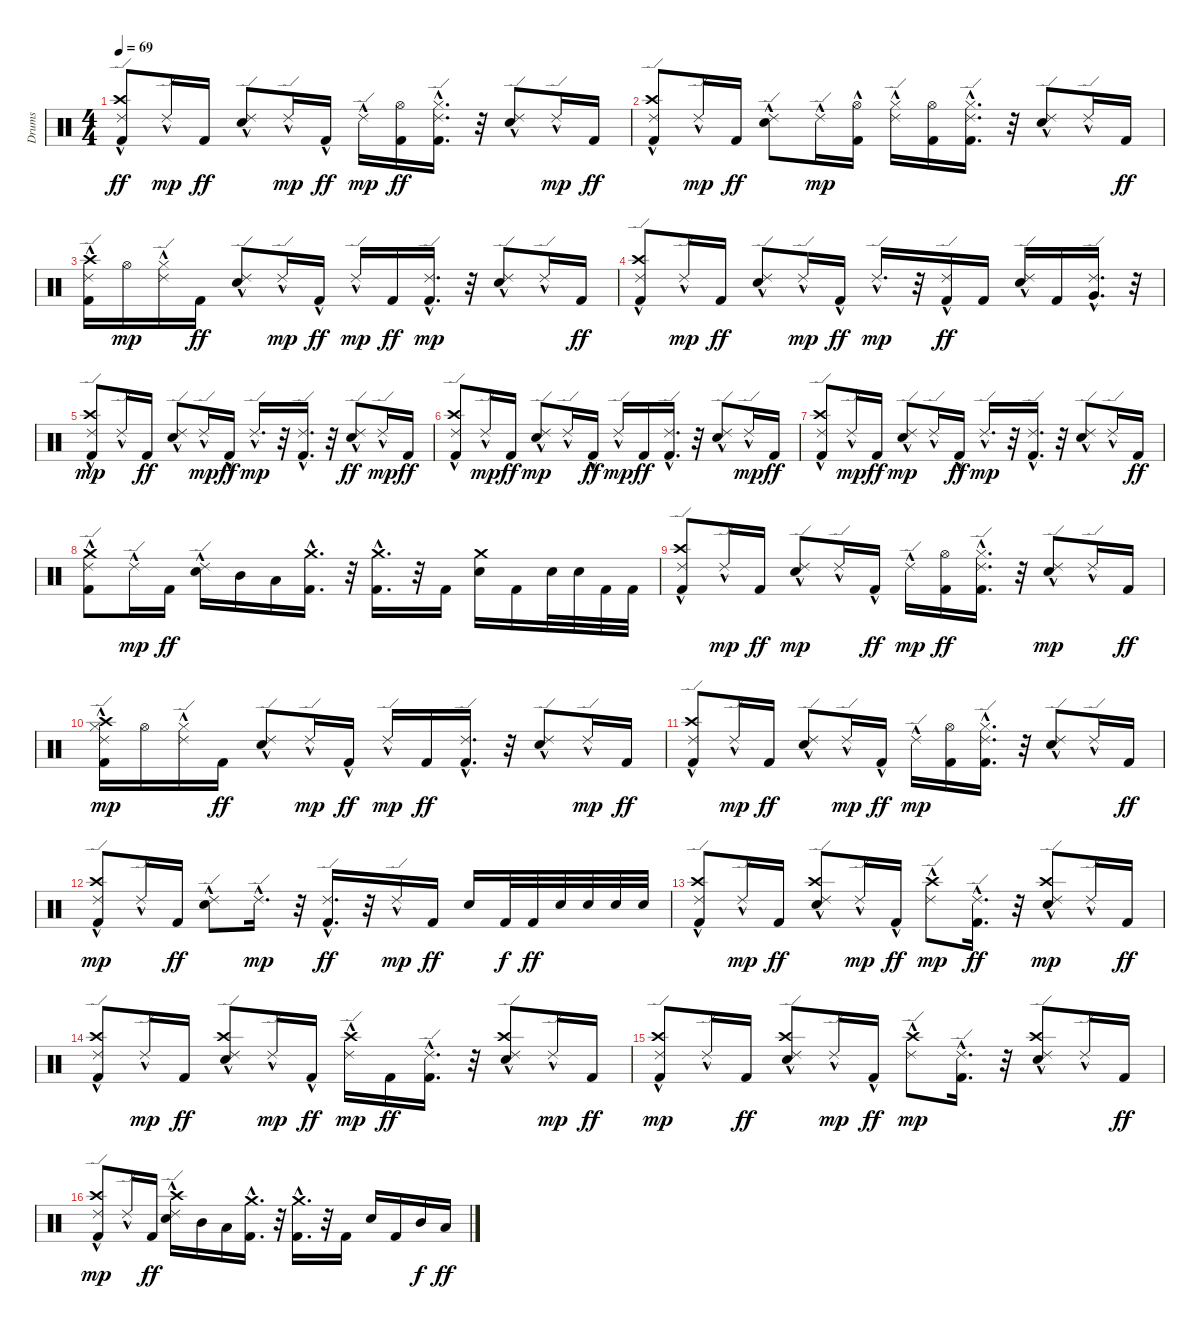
\track ("Drums" "Drums") {instrument percussion}
\staff {score}
\articulation defaults
\ts (4 4)
\tempo 69
\clef neutral
\ks c
("Ride (edge) 2"{hac} "Crash high (hit)"{hac} "Kick (hit) 2").8{dy ff} "Ride (edge) 2"{hac}.16{dy mp} "Kick (hit) 2".16{dy ff} ("Ride (edge) 2"{hac} "Electric Snare (hit)").8 "Ride (edge) 2"{hac}.16{dy mp} "Kick (hit) 2"{hac}.16{dy ff} "Ride (edge) 2"{hac}.16{dy mp} ("Hi-Hat (open)" "Kick (hit) 2").16{dy ff} ("Hi-Hat (closed)" "Ride (edge) 2"{hac} "Kick (hit) 2"{hac}).16{d} r.32 ("Ride (edge) 2"{hac} "Electric Snare (hit)").8 "Ride (edge) 2"{hac}.16{dy mp} "Kick (hit) 2".16{dy ff} |
("Ride (edge) 2"{hac} "Crash high (hit)"{hac} "Kick (hit) 2").8 "Ride (edge) 2"{hac}.16{dy mp} "Kick (hit) 2".16{dy ff} ("Ride (edge) 2"{hac} "Electric Snare (hit)").8 "Ride (edge) 2"{hac}.16{dy mp} ("Kick (hit) 2"{hac} "Hi-Hat (open)").16 ("Ride (edge) 2"{hac} "Hi-Hat (closed)").16 ("Kick (hit) 2" "Hi-Hat (open)").16 ("Hi-Hat (closed)" "Kick (hit) 2"{hac} "Ride (edge) 2"{hac}).16{d} r.32 ("Electric Snare (hit)" "Ride (edge) 2"{hac}).8 "Ride (edge) 2"{hac}.16 "Kick (hit) 2".16{dy ff} |
("Ride (edge) 2"{hac} "Kick (hit) 2" "Crash high (hit)"{hac}).16 "Hi-Hat (open)".16{dy mp} ("Ride (edge) 2"{hac} "Hi-Hat (closed)").16 "Kick (hit) 2".16{dy ff} ("Ride (edge) 2"{hac} "Electric Snare (hit)").8 "Ride (edge) 2"{hac}.16{dy mp} "Kick (hit) 2"{hac}.16{dy ff} "Ride (edge) 2"{hac}.16{dy mp} "Kick (hit) 2".16{dy ff} ("Kick (hit) 2"{hac} "Ride (edge) 2"{hac}).16{d dy mp} r.32 ("Electric Snare (hit)" "Ride (edge) 2"{hac}).8 "Ride (edge) 2"{hac}.16 "Kick (hit) 2".16{dy ff} |
("Crash high (hit)"{hac} "Ride (edge) 2"{hac} "Kick (hit) 2").8 "Ride (edge) 2"{hac}.16{dy mp} "Kick (hit) 2".16{dy ff} ("Ride (edge) 2"{hac} "Electric Snare (hit)").8 "Ride (edge) 2"{hac}.16{dy mp} "Kick (hit) 2"{hac}.16{dy ff} "Ride (edge) 2"{hac}.16{d dy mp} r.32 ("Ride (edge) 2"{hac} "Kick (hit) 2").16{dy ff} "Kick (hit) 2".16 ("Ride (edge) 2"{hac} "Electric Snare (hit)").16 "Kick (hit) 2".16 ("Ride (edge) 2"{hac} "Very Low Tom (hit)"{hac}).16{d} r.32 |
("Kick (hit) 2" "Crash high (hit)"{hac} "Ride (edge) 2"{hac}).8{dy mp} "Ride (edge) 2"{hac}.16 "Kick (hit) 2".16{dy ff} ("Ride (edge) 2"{hac} "Electric Snare (hit)").8 "Ride (edge) 2"{hac}.16{dy mp} "Kick (hit) 2"{hac}.16{dy ff} "Ride (edge) 2"{hac}.16{d dy mp} r.32 ("Kick (hit) 2"{hac} "Ride (edge) 2"{hac}).16{d} r.32 ("Ride (edge) 2"{hac} "Electric Snare (hit)").8{dy ff} "Ride (edge) 2"{hac}.16{dy mp} "Kick (hit) 2".16{dy ff} |
("Ride (edge) 2"{hac} "Kick (hit) 2" "Crash high (hit)"{hac}).8 "Ride (edge) 2"{hac}.16{dy mp} "Kick (hit) 2".16{dy ff} ("Electric Snare (hit)" "Ride (edge) 2"{hac}).8{dy mp} "Ride (edge) 2"{hac}.16 "Kick (hit) 2"{hac}.16{dy ff} "Ride (edge) 2"{hac}.16{dy mp} "Kick (hit) 2".16{dy ff} ("Ride (edge) 2"{hac} "Kick (hit) 2"{hac}).16{d} r.32 ("Ride (edge) 2"{hac} "Electric Snare (hit)").8 "Ride (edge) 2"{hac}.16{dy mp} "Kick (hit) 2".16{dy ff} |
("Crash high (hit)"{hac} "Ride (edge) 2"{hac} "Kick (hit) 2").8 "Ride (edge) 2"{hac}.16{dy mp} "Kick (hit) 2".16{dy ff} ("Electric Snare (hit)" "Ride (edge) 2"{hac}).8{dy mp} "Ride (edge) 2"{hac}.16 "Kick (hit) 2"{hac}.16{dy ff} "Ride (edge) 2"{hac}.16{d dy mp} r.32 ("Kick (hit) 2"{hac} "Ride (edge) 2"{hac}).16{d} r.32 ("Electric Snare (hit)" "Ride (edge) 2"{hac}).8 "Ride (edge) 2"{hac}.16 "Kick (hit) 2".16{dy ff} |
("Crash medium (hit)" "Ride (edge) 2"{hac} "Kick (hit) 2").8 "Ride (edge) 2"{hac}.16{dy mp} "Kick (hit) 2".16{dy ff} ("Ride (edge) 2"{hac} "Electric Snare (hit)").16 "Mid Tom (hit)".16 "Low Tom (hit)".16 ("Kick (hit) 2"{hac} "Crash medium (hit)"{hac}).16{d} r.32 ("Crash medium (hit)"{hac} "Kick (hit) 2"{hac}).16{d} r.32 "Kick (hit) 2".16 ("Crash medium (hit)" "Electric Snare (hit)").16 "Kick (hit) 2".16 "Electric Snare (hit)".32 "Electric Snare (hit)".32 "Kick (hit) 2".32 "Kick (hit) 2".32 |
("Ride (edge) 2"{hac} "Crash high (hit)"{hac} "Kick (hit) 2").8 "Ride (edge) 2"{hac}.16{dy mp} "Kick (hit) 2".16{dy ff} ("Electric Snare (hit)" "Ride (edge) 2"{hac}).8{dy mp} "Ride (edge) 2"{hac}.16 "Kick (hit) 2"{hac}.16{dy ff} "Ride (edge) 2"{hac}.16{dy mp} ("Hi-Hat (open)" "Kick (hit) 2").16{dy ff} ("Ride (edge) 2"{hac} "Hi-Hat (closed)" "Kick (hit) 2"{hac}).16{d} r.32 ("Electric Snare (hit)" "Ride (edge) 2"{hac}).8{dy mp} "Ride (edge) 2"{hac}.16 "Kick (hit) 2".16{dy ff} |
("Ride (edge) 2"{hac} "Crash high (hit)"{hac} "Kick (hit) 2" "Hi-Hat (closed)").16{dy mp} "Hi-Hat (open)".16 ("Ride (edge) 2"{hac} "Hi-Hat (closed)").16 "Kick (hit) 2".16{dy ff} ("Ride (edge) 2"{hac} "Electric Snare (hit)").8 "Ride (edge) 2"{hac}.16{dy mp} "Kick (hit) 2"{hac}.16{dy ff} "Ride (edge) 2"{hac}.16{dy mp} "Kick (hit) 2".16{dy ff} ("Ride (edge) 2"{hac} "Kick (hit) 2"{hac}).16{d} r.32 ("Ride (edge) 2"{hac} "Electric Snare (hit)").8 "Ride (edge) 2"{hac}.16{dy mp} "Kick (hit) 2".16{dy ff} |
("Crash high (hit)"{hac} "Ride (edge) 2"{hac} "Kick (hit) 2").8 "Ride (edge) 2"{hac}.16{dy mp} "Kick (hit) 2".16{dy ff} ("Ride (edge) 2"{hac} "Electric Snare (hit)").8 "Ride (edge) 2"{hac}.16{dy mp} "Kick (hit) 2"{hac}.16{dy ff} "Ride (edge) 2"{hac}.16{dy mp} ("Kick (hit) 2" "Hi-Hat (open)").16 ("Ride (edge) 2"{hac} "Kick (hit) 2"{hac} "Hi-Hat (closed)").16{d} r.32 ("Electric Snare (hit)" "Ride (edge) 2"{hac}).8 "Ride (edge) 2"{hac}.16 "Kick (hit) 2".16{dy ff} |
("Crash high (hit)"{hac} "Kick (hit) 2" "Ride (edge) 2"{hac}).8{dy mp} "Ride (edge) 2"{hac}.16 "Kick (hit) 2".16{dy ff} ("Ride (edge) 2"{hac} "Electric Snare (hit)").8 "Ride (edge) 2"{hac}.16{d dy mp} r.32 ("Ride (edge) 2"{hac} "Kick (hit) 2"{hac}).16{d dy ff} r.32 "Ride (edge) 2"{hac}.16{dy mp} "Kick (hit) 2".16{dy ff} "Electric Snare (hit)".16 "Kick (hit) 2".32{dy f} "Kick (hit) 2".32{dy ff} "Electric Snare (hit)".32 "Electric Snare (hit)".32 "Electric Snare (hit)".32 "Electric Snare (hit)".32 |
("Ride (edge) 2"{hac} "Kick (hit) 2" "Crash high (hit)"{hac}).8 "Ride (edge) 2"{hac}.16{dy mp} "Kick (hit) 2".16{dy ff} ("Ride (edge) 2"{hac} "Electric Snare (hit)" "Crash high (hit)"{hac}).8 "Ride (edge) 2"{hac}.16{dy mp} "Kick (hit) 2"{hac}.16{dy ff} ("Ride (edge) 2"{hac} "Crash high (hit)"{hac}).8{dy mp} ("Ride (edge) 2"{hac} "Kick (hit) 2"{hac}).16{d dy ff} r.32 ("Electric Snare (hit)" "Ride (edge) 2"{hac} "Crash high (hit)"{hac}).8{dy mp} "Ride (edge) 2"{hac}.16 "Kick (hit) 2".16{dy ff} |
("Ride (edge) 2"{hac} "Kick (hit) 2" "Crash high (hit)"{hac}).8 "Ride (edge) 2"{hac}.16{dy mp} "Kick (hit) 2".16{dy ff} ("Ride (edge) 2"{hac} "Electric Snare (hit)" "Crash high (hit)"{hac}).8 "Ride (edge) 2"{hac}.16{dy mp} "Kick (hit) 2"{hac}.16{dy ff} ("Ride (edge) 2"{hac} "Crash high (hit)"{hac}).16{dy mp} "Kick (hit) 2".16{dy ff} ("Ride (edge) 2"{hac} "Kick (hit) 2"{hac}).16{d} r.32 ("Ride (edge) 2"{hac} "Electric Snare (hit)" "Crash high (hit)"{hac}).8 "Ride (edge) 2"{hac}.16{dy mp} "Kick (hit) 2".16{dy ff} |
("Kick (hit) 2" "Ride (edge) 2"{hac} "Crash high (hit)"{hac}).8{dy mp} "Ride (edge) 2"{hac}.16 "Kick (hit) 2".16{dy ff} ("Ride (edge) 2"{hac} "Electric Snare (hit)" "Crash high (hit)"{hac}).8 "Ride (edge) 2"{hac}.16{dy mp} "Kick (hit) 2"{hac}.16{dy ff} ("Ride (edge) 2"{hac} "Crash high (hit)"{hac}).8{dy mp} ("Kick (hit) 2"{hac} "Ride (edge) 2"{hac}).16{d} r.32 ("Electric Snare (hit)" "Ride (edge) 2"{hac} "Crash high (hit)"{hac}).8 "Ride (edge) 2"{hac}.16 "Kick (hit) 2".16{dy ff} |
("Kick (hit) 2" "Ride (edge) 2"{hac} "Crash high (hit)"{hac}).8{dy mp} "Ride (edge) 2"{hac}.16 "Kick (hit) 2".16{dy ff} ("Ride (edge) 2"{hac} "Electric Snare (hit)" "Crash high (hit)"{hac}).16 "Mid Tom (hit)".16 "Low Tom (hit)".16 ("Kick (hit) 2"{hac} "Crash medium (hit)"{hac}).16{d} r.32 ("Kick (hit) 2"{hac} "Crash medium (hit)"{hac}).16{d} r.32 "Kick (hit) 2".16 "Electric Snare (hit)".16 "Kick (hit) 2".16 "Mid Tom (hit)".16{dy f} "Low Tom (hit)".16{dy ff}
